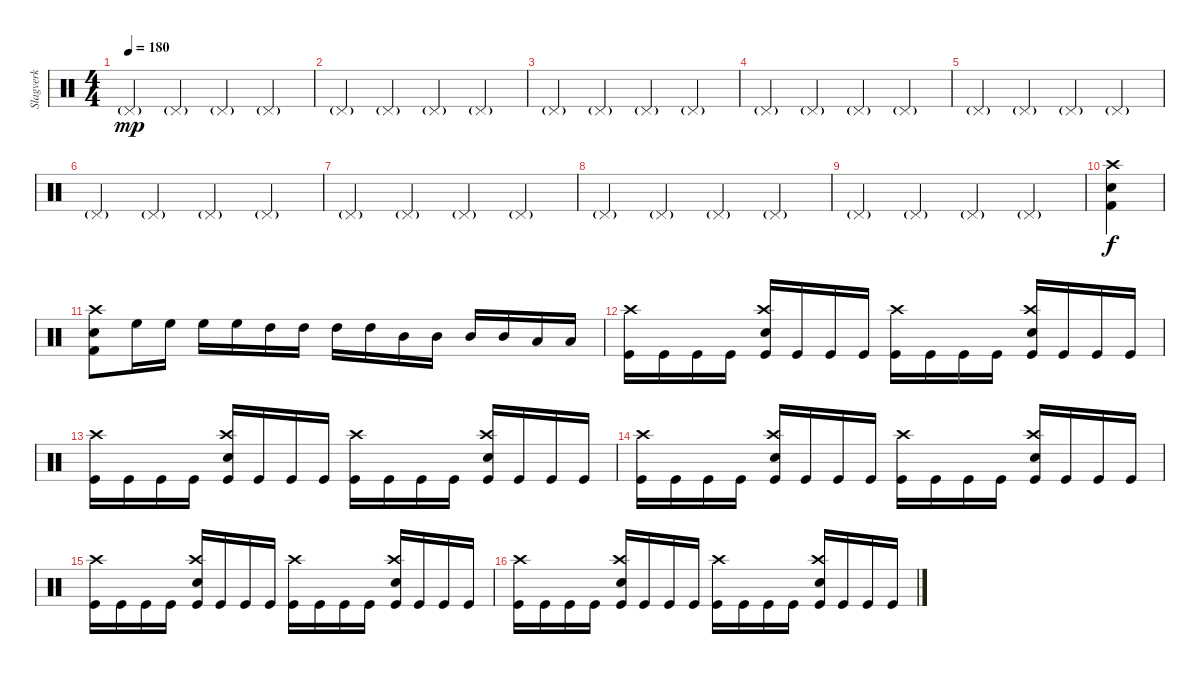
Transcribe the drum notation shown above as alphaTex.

\track ("Slagverk" "Slagverk") {instrument percussion}
\staff {score}
\articulation defaults
\ts (4 4)
\tempo 180
\clef neutral
\ks c "Pedal Hi-Hat (hit)"{g}.2{dy mp} "Pedal Hi-Hat (hit)"{g}.2 "Pedal Hi-Hat (hit)"{g}.2 "Pedal Hi-Hat (hit)"{g}.2
|
"Pedal Hi-Hat (hit)"{g}.2 "Pedal Hi-Hat (hit)"{g}.2 "Pedal Hi-Hat (hit)"{g}.2 "Pedal Hi-Hat (hit)"{g}.2 |
"Pedal Hi-Hat (hit)"{g}.2 "Pedal Hi-Hat (hit)"{g}.2 "Pedal Hi-Hat (hit)"{g}.2 "Pedal Hi-Hat (hit)"{g}.2 |
"Pedal Hi-Hat (hit)"{g}.2 "Pedal Hi-Hat (hit)"{g}.2 "Pedal Hi-Hat (hit)"{g}.2 "Pedal Hi-Hat (hit)"{g}.2 |
"Pedal Hi-Hat (hit)"{g}.2 "Pedal Hi-Hat (hit)"{g}.2 "Pedal Hi-Hat (hit)"{g}.2 "Pedal Hi-Hat (hit)"{g}.2 |
"Pedal Hi-Hat (hit)"{g}.2 "Pedal Hi-Hat (hit)"{g}.2 "Pedal Hi-Hat (hit)"{g}.2 "Pedal Hi-Hat (hit)"{g}.2 |
"Pedal Hi-Hat (hit)"{g}.2 "Pedal Hi-Hat (hit)"{g}.2 "Pedal Hi-Hat (hit)"{g}.2 "Pedal Hi-Hat (hit)"{g}.2 |
"Pedal Hi-Hat (hit)"{g}.2 "Pedal Hi-Hat (hit)"{g}.2 "Pedal Hi-Hat (hit)"{g}.2 "Pedal Hi-Hat (hit)"{g}.2 |
"Pedal Hi-Hat (hit)"{g}.2 "Pedal Hi-Hat (hit)"{g}.2 "Pedal Hi-Hat (hit)"{g}.2 "Pedal Hi-Hat (hit)"{g}.2 |
("Electric Snare (hit)" "Kick (hit) 2" "Crash high (hit)").4{dy f} |
("Crash high (hit)" "Kick (hit) 2" "Electric Snare (hit)").8 "High Floor Tom (hit)".16 "High Floor Tom (hit)".16 "High Floor Tom (hit)".16 "High Floor Tom (hit)".16 "High Tom (hit)".16 "High Tom (hit)".16 "High Tom (hit)".16 "High Tom (hit)".16 "Mid Tom (hit)".16 "Mid Tom (hit)".16 "Mid Tom (hit)".16 "Mid Tom (hit)".16 "Low Tom (hit)".16 "Low Tom (hit)".16 |
("Kick (hit)" "Crash high (hit)").16 "Kick (hit)".16 "Kick (hit)".16 "Kick (hit)".16 ("Kick (hit)" "Electric Snare (hit)" "Crash high (hit)").16 "Kick (hit)".16 "Kick (hit)".16 "Kick (hit)".16 ("Kick (hit)" "Crash high (hit)").16 "Kick (hit)".16 "Kick (hit)".16 "Kick (hit)".16 ("Kick (hit)" "Electric Snare (hit)" "Crash high (hit)").16 "Kick (hit)".16 "Kick (hit)".16 "Kick (hit)".16 |
("Kick (hit)" "Crash high (hit)").16 "Kick (hit)".16 "Kick (hit)".16 "Kick (hit)".16 ("Kick (hit)" "Electric Snare (hit)" "Crash high (hit)").16 "Kick (hit)".16 "Kick (hit)".16 "Kick (hit)".16 ("Kick (hit)" "Crash high (hit)").16 "Kick (hit)".16 "Kick (hit)".16 "Kick (hit)".16 ("Kick (hit)" "Electric Snare (hit)" "Crash high (hit)").16 "Kick (hit)".16 "Kick (hit)".16 "Kick (hit)".16 |
("Kick (hit)" "Crash high (hit)").16 "Kick (hit)".16 "Kick (hit)".16 "Kick (hit)".16 ("Kick (hit)" "Electric Snare (hit)" "Crash high (hit)").16 "Kick (hit)".16 "Kick (hit)".16 "Kick (hit)".16 ("Kick (hit)" "Crash high (hit)").16 "Kick (hit)".16 "Kick (hit)".16 "Kick (hit)".16 ("Kick (hit)" "Electric Snare (hit)" "Crash high (hit)").16 "Kick (hit)".16 "Kick (hit)".16 "Kick (hit)".16 |
("Kick (hit)" "Crash high (hit)").16 "Kick (hit)".16 "Kick (hit)".16 "Kick (hit)".16 ("Kick (hit)" "Electric Snare (hit)" "Crash high (hit)").16 "Kick (hit)".16 "Kick (hit)".16 "Kick (hit)".16 ("Kick (hit)" "Crash high (hit)").16 "Kick (hit)".16 "Kick (hit)".16 "Kick (hit)".16 ("Kick (hit)" "Electric Snare (hit)" "Crash high (hit)").16 "Kick (hit)".16 "Kick (hit)".16 "Kick (hit)".16 |
("Kick (hit)" "Crash high (hit)").16 "Kick (hit)".16 "Kick (hit)".16 "Kick (hit)".16 ("Kick (hit)" "Electric Snare (hit)" "Crash high (hit)").16 "Kick (hit)".16 "Kick (hit)".16 "Kick (hit)".16 ("Kick (hit)" "Crash high (hit)").16 "Kick (hit)".16 "Kick (hit)".16 "Kick (hit)".16 ("Kick (hit)" "Electric Snare (hit)" "Crash high (hit)").16 "Kick (hit)".16 "Kick (hit)".16 "Kick (hit)".16
